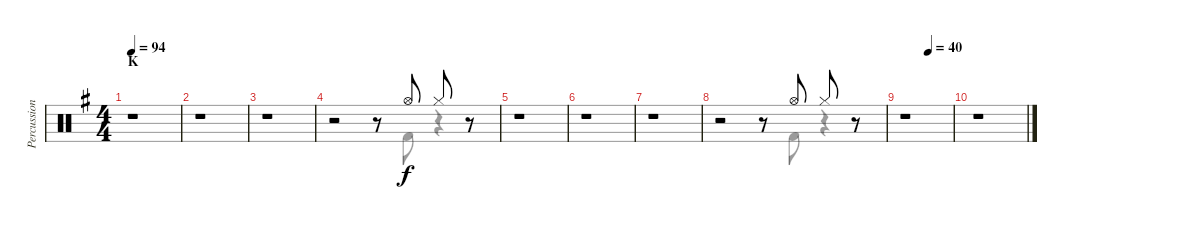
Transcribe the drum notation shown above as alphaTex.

\track ("Percussion" "Percussion") {instrument percussion}
\staff {score}
\articulation defaults
\voice
\ts (4 4)
\section ("" "K")
\tempo 94
\clef neutral
\ks g
r.1{dy f} |
r.1 |
r.1 |
r.2 r.8 "Hi-Hat (open)".8 "Hi-Hat (closed)".8 r.8 |
r.1 |
r.1 |
r.1 |
r.2 r.8 "Hi-Hat (open)".8 "Hi-Hat (closed)".8 r.8 |
\tempo (40 0.5)
r.1 |
r.1
\voice
\clef neutral
\ottava regular
\simile none
\ks g
|
|
|
r.2 r.8 "Kick (hit) 2".8 r.4 |
|
|
|
r.2 r.8 "Kick (hit) 2".8 r.4 |
|
